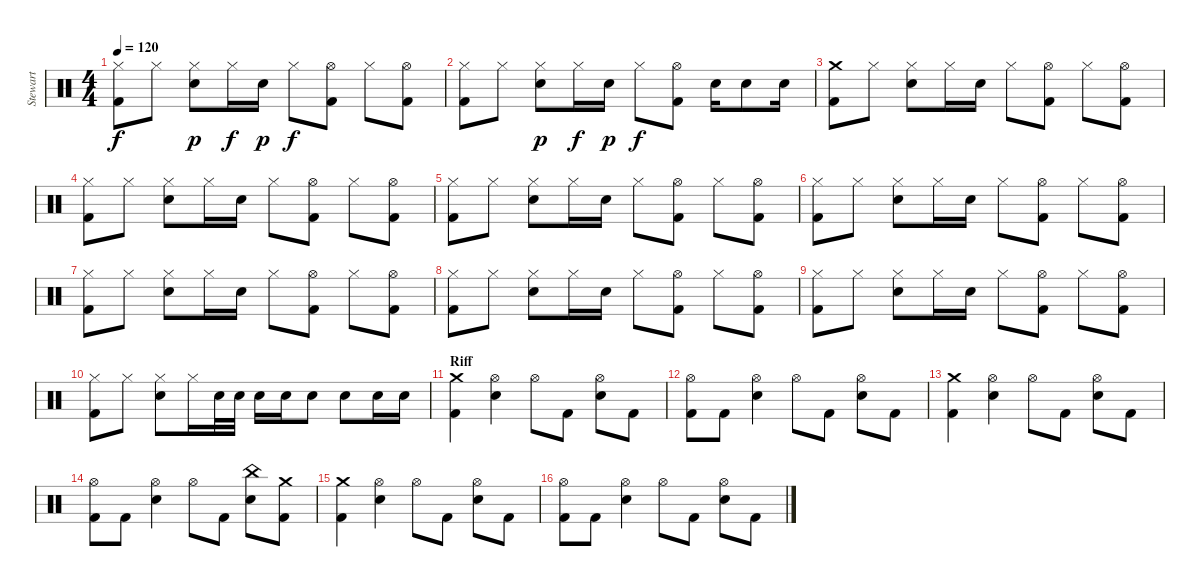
\track ("Stewart" "Stewart") {instrument percussion}
\staff {score}
\articulation defaults
\ts (4 4)
\tempo 120
\clef neutral
\ks c
("Hi-Hat (closed)" "Kick (hit) 2").8{dy f} "Hi-Hat (closed)".8 ("Hi-Hat (closed)" "Electric Snare (hit)").8{dy p} "Hi-Hat (closed)".16{dy f} "Electric Snare (hit)".16{dy p} "Hi-Hat (closed)".8{dy f} ("Hi-Hat (open)" "Kick (hit) 2").8 "Hi-Hat (closed)".8 ("Hi-Hat (open)" "Kick (hit) 2").8 |
("Hi-Hat (closed)" "Kick (hit) 2").8 "Hi-Hat (closed)".8 ("Hi-Hat (closed)" "Electric Snare (hit)").8{dy p} "Hi-Hat (closed)".16{dy f} "Electric Snare (hit)".16{dy p} "Hi-Hat (closed)".8{dy f} ("Hi-Hat (open)" "Kick (hit) 2").8 "Electric Snare (hit)".16 "Electric Snare (hit)".8 "Electric Snare (hit)".16 |
("Crash medium (hit)" "Kick (hit) 2").8 "Hi-Hat (closed)".8 ("Hi-Hat (closed)" "Electric Snare (hit)").8 "Hi-Hat (closed)".16 "Electric Snare (hit)".16 "Hi-Hat (closed)".8 ("Hi-Hat (open)" "Kick (hit) 2").8 "Hi-Hat (closed)".8 ("Hi-Hat (open)" "Kick (hit) 2").8 |
("Hi-Hat (closed)" "Kick (hit) 2").8 "Hi-Hat (closed)".8 ("Hi-Hat (closed)" "Electric Snare (hit)").8 "Hi-Hat (closed)".16 "Electric Snare (hit)".16 "Hi-Hat (closed)".8 ("Hi-Hat (open)" "Kick (hit) 2").8 "Hi-Hat (closed)".8 ("Hi-Hat (open)" "Kick (hit) 2").8 |
("Hi-Hat (closed)" "Kick (hit) 2").8 "Hi-Hat (closed)".8 ("Hi-Hat (closed)" "Electric Snare (hit)").8 "Hi-Hat (closed)".16 "Electric Snare (hit)".16 "Hi-Hat (closed)".8 ("Hi-Hat (open)" "Kick (hit) 2").8 "Hi-Hat (closed)".8 ("Hi-Hat (open)" "Kick (hit) 2").8 |
("Hi-Hat (closed)" "Kick (hit) 2").8 "Hi-Hat (closed)".8 ("Hi-Hat (closed)" "Electric Snare (hit)").8 "Hi-Hat (closed)".16 "Electric Snare (hit)".16 "Hi-Hat (closed)".8 ("Hi-Hat (open)" "Kick (hit) 2").8 "Hi-Hat (closed)".8 ("Hi-Hat (open)" "Kick (hit) 2").8 |
("Hi-Hat (closed)" "Kick (hit) 2").8 "Hi-Hat (closed)".8 ("Hi-Hat (closed)" "Electric Snare (hit)").8 "Hi-Hat (closed)".16 "Electric Snare (hit)".16 "Hi-Hat (closed)".8 ("Hi-Hat (open)" "Kick (hit) 2").8 "Hi-Hat (closed)".8 ("Hi-Hat (open)" "Kick (hit) 2").8 |
("Hi-Hat (closed)" "Kick (hit) 2").8 "Hi-Hat (closed)".8 ("Hi-Hat (closed)" "Electric Snare (hit)").8 "Hi-Hat (closed)".16 "Electric Snare (hit)".16 "Hi-Hat (closed)".8 ("Hi-Hat (open)" "Kick (hit) 2").8 "Hi-Hat (closed)".8 ("Hi-Hat (open)" "Kick (hit) 2").8 |
("Hi-Hat (closed)" "Kick (hit) 2").8 "Hi-Hat (closed)".8 ("Hi-Hat (closed)" "Electric Snare (hit)").8 "Hi-Hat (closed)".16 "Electric Snare (hit)".16 "Hi-Hat (closed)".8 ("Hi-Hat (open)" "Kick (hit) 2").8 "Hi-Hat (closed)".8 ("Hi-Hat (open)" "Kick (hit) 2").8 |
("Hi-Hat (closed)" "Kick (hit) 2").8 "Hi-Hat (closed)".8 ("Hi-Hat (closed)" "Electric Snare (hit)").8 "Hi-Hat (closed)".16 "Electric Snare (hit)".32 "Electric Snare (hit)".32 "Electric Snare (hit)".16 "Electric Snare (hit)".16 "Electric Snare (hit)".8 "Electric Snare (hit)".8 "Electric Snare (hit)".16 "Electric Snare (hit)".16 |
\section ("" "Riff")
("Crash medium (hit)" "Kick (hit) 2").4 ("Hi-Hat (open)" "Electric Snare (hit)").4 "Hi-Hat (open)".8 "Kick (hit) 2".8 ("Hi-Hat (open)" "Electric Snare (hit)").8 "Kick (hit) 2".8 |
("Hi-Hat (open)" "Kick (hit) 2").8 "Kick (hit) 2".8 ("Hi-Hat (open)" "Electric Snare (hit)").4 "Hi-Hat (open)".8 "Kick (hit) 2".8 ("Hi-Hat (open)" "Electric Snare (hit)").8 "Kick (hit) 2".8 |
("Crash medium (hit)" "Kick (hit) 2").4 ("Hi-Hat (open)" "Electric Snare (hit)").4 "Hi-Hat (open)".8 "Kick (hit) 2".8 ("Hi-Hat (open)" "Electric Snare (hit)").8 "Kick (hit) 2".8 |
("Hi-Hat (open)" "Kick (hit) 2").8 "Kick (hit) 2".8 ("Hi-Hat (open)" "Electric Snare (hit)").4 "Hi-Hat (open)".8 "Kick (hit) 2".8 ("China (hit)" "Electric Snare (hit)").8 ("Crash medium (hit)" "Kick (hit) 2").8 |
("Crash medium (hit)" "Kick (hit) 2").4 ("Hi-Hat (open)" "Electric Snare (hit)").4 "Hi-Hat (open)".8 "Kick (hit) 2".8 ("Hi-Hat (open)" "Electric Snare (hit)").8 "Kick (hit) 2".8 |
("Hi-Hat (open)" "Kick (hit) 2").8 "Kick (hit) 2".8 ("Hi-Hat (open)" "Electric Snare (hit)").4 "Hi-Hat (open)".8 "Kick (hit) 2".8 ("Hi-Hat (open)" "Electric Snare (hit)").8 "Kick (hit) 2".8
